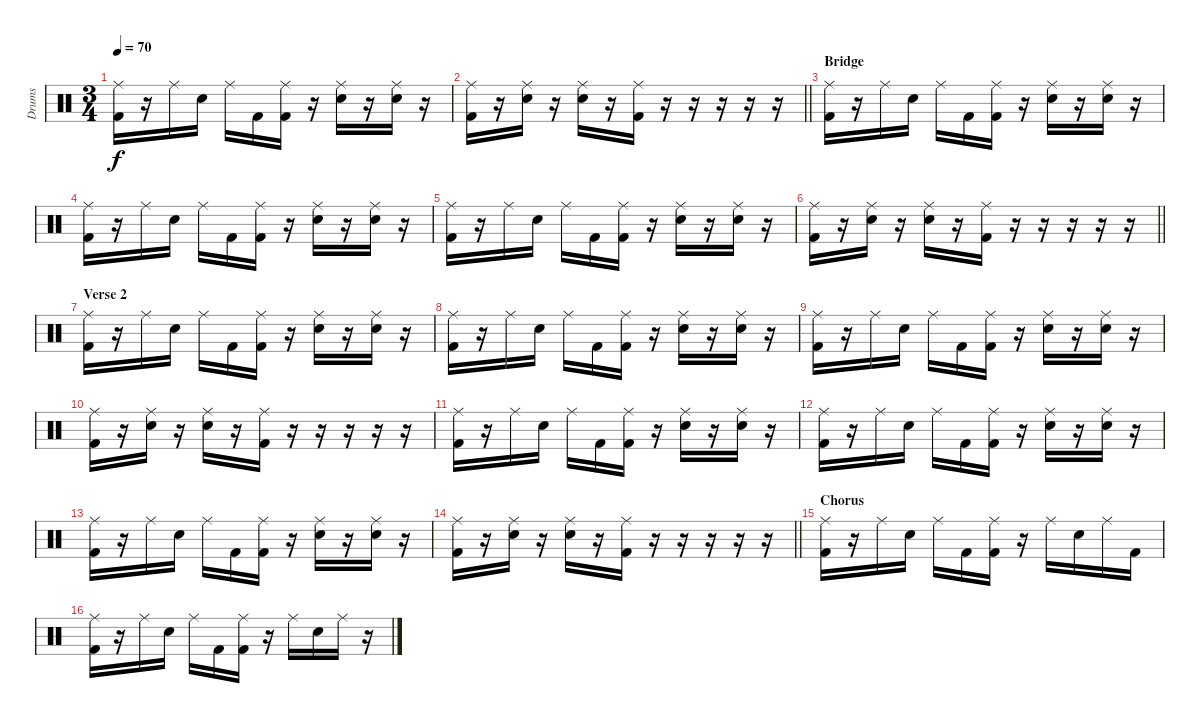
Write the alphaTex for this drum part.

\track ("Drums" "Drums") {instrument percussion}
\staff {score}
\articulation defaults
\ts (3 4)
\tempo 70
\clef neutral
\ks c
("Ride (middle)" "Kick (hit) 2").16{dy f} r.16 "Ride (middle)".16 "Electric Snare (hit)".16 "Ride (middle)".16 "Kick (hit) 2".16 ("Ride (middle)" "Kick (hit) 2").16 r.16 ("Ride (middle)" "Electric Snare (hit)").16 r.16 ("Ride (middle)" "Electric Snare (hit)").16 r.16 |
\barLineRight lightlight
("Ride (middle)" "Kick (hit) 2").16 r.16 ("Ride (middle)" "Electric Snare (hit)").16 r.16 ("Ride (middle)" "Electric Snare (hit)").16 r.16 ("Ride (middle)" "Kick (hit) 2").16 r.16 r.16 r.16 r.16 r.16 |
\section ("" "Bridge")
("Ride (middle)" "Kick (hit) 2").16 r.16 "Ride (middle)".16 "Electric Snare (hit)".16 "Ride (middle)".16 "Kick (hit) 2".16 ("Ride (middle)" "Kick (hit) 2").16 r.16 ("Ride (middle)" "Electric Snare (hit)").16 r.16 ("Ride (middle)" "Electric Snare (hit)").16 r.16 |
("Ride (middle)" "Kick (hit) 2").16 r.16 "Ride (middle)".16 "Electric Snare (hit)".16 "Ride (middle)".16 "Kick (hit) 2".16 ("Ride (middle)" "Kick (hit) 2").16 r.16 ("Ride (middle)" "Electric Snare (hit)").16 r.16 ("Ride (middle)" "Electric Snare (hit)").16 r.16 |
("Ride (middle)" "Kick (hit) 2").16 r.16 "Ride (middle)".16 "Electric Snare (hit)".16 "Ride (middle)".16 "Kick (hit) 2".16 ("Ride (middle)" "Kick (hit) 2").16 r.16 ("Ride (middle)" "Electric Snare (hit)").16 r.16 ("Ride (middle)" "Electric Snare (hit)").16 r.16 |
\barLineRight lightlight
("Ride (middle)" "Kick (hit) 2").16 r.16 ("Ride (middle)" "Electric Snare (hit)").16 r.16 ("Ride (middle)" "Electric Snare (hit)").16 r.16 ("Ride (middle)" "Kick (hit) 2").16 r.16 r.16 r.16 r.16 r.16 |
\section ("" "Verse 2")
("Ride (middle)" "Kick (hit) 2").16 r.16 "Ride (middle)".16 "Electric Snare (hit)".16 "Ride (middle)".16 "Kick (hit) 2".16 ("Ride (middle)" "Kick (hit) 2").16 r.16 ("Ride (middle)" "Electric Snare (hit)").16 r.16 ("Ride (middle)" "Electric Snare (hit)").16 r.16 |
("Ride (middle)" "Kick (hit) 2").16 r.16 "Ride (middle)".16 "Electric Snare (hit)".16 "Ride (middle)".16 "Kick (hit) 2".16 ("Ride (middle)" "Kick (hit) 2").16 r.16 ("Ride (middle)" "Electric Snare (hit)").16 r.16 ("Ride (middle)" "Electric Snare (hit)").16 r.16 |
("Ride (middle)" "Kick (hit) 2").16 r.16 "Ride (middle)".16 "Electric Snare (hit)".16 "Ride (middle)".16 "Kick (hit) 2".16 ("Ride (middle)" "Kick (hit) 2").16 r.16 ("Ride (middle)" "Electric Snare (hit)").16 r.16 ("Ride (middle)" "Electric Snare (hit)").16 r.16 |
("Ride (middle)" "Kick (hit) 2").16 r.16 ("Ride (middle)" "Electric Snare (hit)").16 r.16 ("Ride (middle)" "Electric Snare (hit)").16 r.16 ("Ride (middle)" "Kick (hit) 2").16 r.16 r.16 r.16 r.16 r.16 |
("Ride (middle)" "Kick (hit) 2").16 r.16 "Ride (middle)".16 "Electric Snare (hit)".16 "Ride (middle)".16 "Kick (hit) 2".16 ("Ride (middle)" "Kick (hit) 2").16 r.16 ("Ride (middle)" "Electric Snare (hit)").16 r.16 ("Ride (middle)" "Electric Snare (hit)").16 r.16 |
("Ride (middle)" "Kick (hit) 2").16 r.16 "Ride (middle)".16 "Electric Snare (hit)".16 "Ride (middle)".16 "Kick (hit) 2".16 ("Ride (middle)" "Kick (hit) 2").16 r.16 ("Ride (middle)" "Electric Snare (hit)").16 r.16 ("Ride (middle)" "Electric Snare (hit)").16 r.16 |
("Ride (middle)" "Kick (hit) 2").16 r.16 "Ride (middle)".16 "Electric Snare (hit)".16 "Ride (middle)".16 "Kick (hit) 2".16 ("Ride (middle)" "Kick (hit) 2").16 r.16 ("Ride (middle)" "Electric Snare (hit)").16 r.16 ("Ride (middle)" "Electric Snare (hit)").16 r.16 |
\barLineRight lightlight
("Ride (middle)" "Kick (hit) 2").16 r.16 ("Ride (middle)" "Electric Snare (hit)").16 r.16 ("Ride (middle)" "Electric Snare (hit)").16 r.16 ("Ride (middle)" "Kick (hit) 2").16 r.16 r.16 r.16 r.16 r.16 |
\section ("" "Chorus")
("Ride (middle)" "Kick (hit) 2").16 r.16 "Ride (middle)".16 "Electric Snare (hit)".16 "Ride (middle)".16 "Kick (hit) 2".16 ("Ride (middle)" "Kick (hit) 2").16 r.16 "Ride (middle)".16 "Electric Snare (hit)".16 "Ride (middle)".16 "Kick (hit) 2".16 |
("Ride (middle)" "Kick (hit) 2").16 r.16 "Ride (middle)".16 "Electric Snare (hit)".16 "Ride (middle)".16 "Kick (hit) 2".16 ("Ride (middle)" "Kick (hit) 2").16 r.16 "Ride (middle)".16 "Electric Snare (hit)".16 "Ride (middle)".16 r.16
